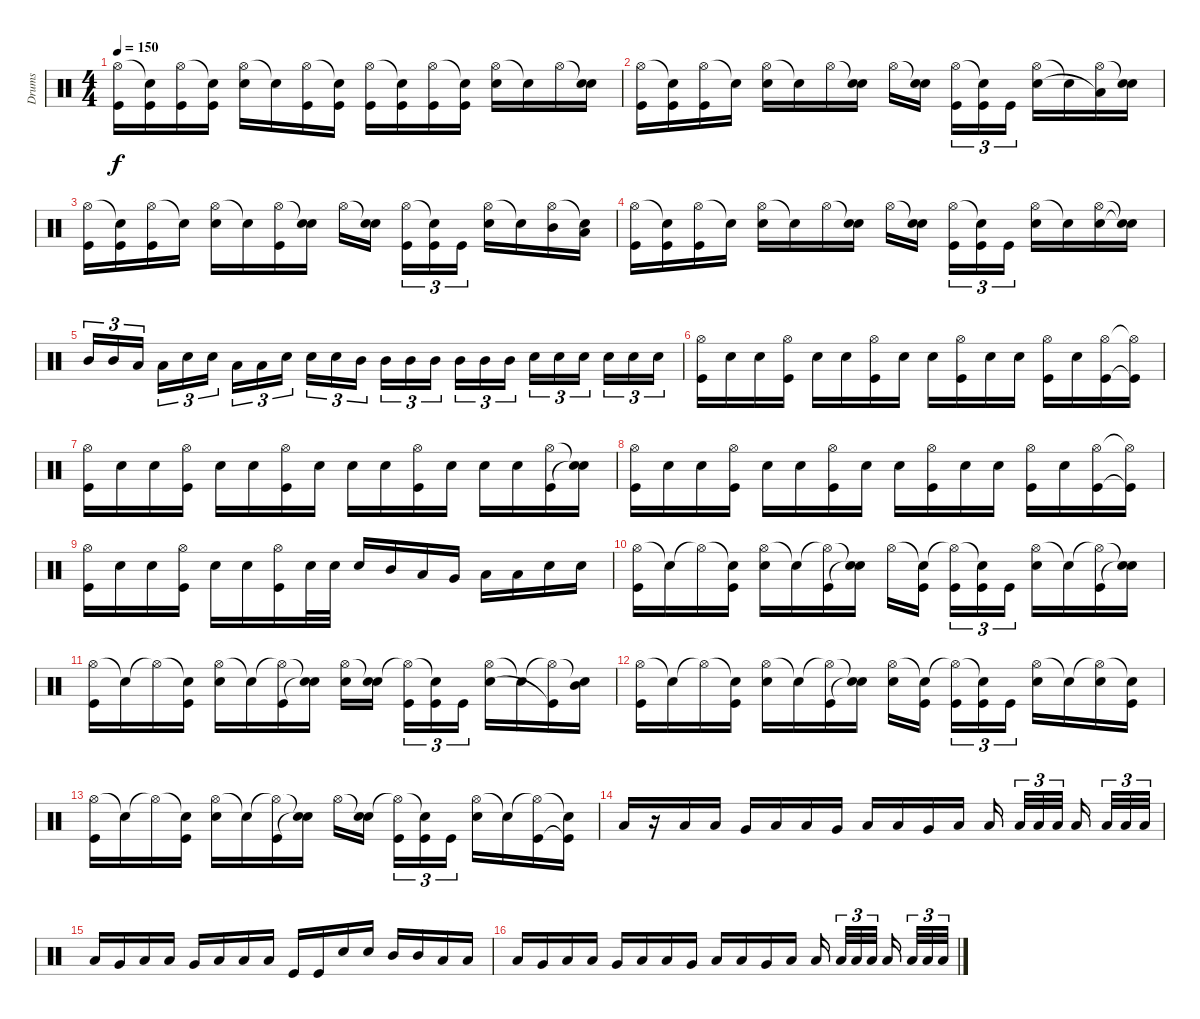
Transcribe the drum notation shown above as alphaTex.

\track ("Drums" "Drums") {instrument percussion}
\staff {score}
\articulation defaults
\ts (4 4)
\tempo 150
\clef neutral
\ks c
("Hi-Hat (open)" "Kick (hit)").16{dy f} ("Snare (hit)"{t} "Kick (hit)").16 ("Hi-Hat (open)" "Kick (hit)").16 ("Snare (hit)"{t} "Kick (hit)").16 ("Hi-Hat (open)" "Electric Snare (hit)").16 "Snare (hit)"{t}.16 ("Hi-Hat (open)" "Kick (hit)").16 ("Snare (hit)"{t} "Kick (hit)").16 ("Hi-Hat (open)" "Kick (hit)").16 ("Snare (hit)"{t} "Kick (hit)").16 ("Hi-Hat (open)" "Kick (hit)").16 ("Snare (hit)"{t} "Kick (hit)").16 ("Hi-Hat (open)" "Electric Snare (hit)").16 "Snare (hit)"{t}.16 "Hi-Hat (open)".16 ("Snare (hit)"{t} "Electric Snare (hit)").16 |
("Hi-Hat (open)" "Kick (hit)").16 ("Snare (hit)"{t} "Kick (hit)").16 ("Hi-Hat (open)" "Kick (hit)").16 "Snare (hit)"{t}.16 ("Hi-Hat (open)" "Electric Snare (hit)").16 "Snare (hit)"{t}.16 "Hi-Hat (open)".16 ("Snare (hit)"{t} "Electric Snare (hit)").16 "Hi-Hat (open)".16 ("Snare (hit)"{t} "Electric Snare (hit)").16 ("Hi-Hat (open)" "Kick (hit)").16{tu (3 2)} ("Snare (hit)"{t} "Kick (hit)").16{tu (3 2)} "Kick (hit)".16{tu (3 2)} ("Hi-Hat (open)" "Electric Snare (hit)").16 "Snare (hit)"{t}.16 ("Hi-Hat (open)" "Low Tom (hit)"{t}).16 ("Snare (hit)"{t} "Electric Snare (hit)").16 |
("Hi-Hat (open)" "Kick (hit)").16 ("Snare (hit)"{t} "Kick (hit)").16 ("Hi-Hat (open)" "Kick (hit)").16 "Snare (hit)"{t}.16 ("Hi-Hat (open)" "Electric Snare (hit)").16 "Snare (hit)"{t}.16 ("Hi-Hat (open)" "Kick (hit)").16 ("Snare (hit)"{t} "Electric Snare (hit)").16 "Hi-Hat (open)".16 ("Snare (hit)"{t} "Electric Snare (hit)").16 ("Hi-Hat (open)" "Kick (hit)").16{tu (3 2)} ("Snare (hit)"{t} "Kick (hit)").16{tu (3 2)} "Kick (hit)".16{tu (3 2)} ("Hi-Hat (open)" "Electric Snare (hit)").16 "Snare (hit)"{t}.16 ("Hi-Hat (open)" "Mid Tom (hit)").16 ("Snare (hit)"{t} "Low Tom (hit)").16 |
("Hi-Hat (open)" "Kick (hit)").16 ("Snare (hit)"{t} "Kick (hit)").16 ("Hi-Hat (open)" "Kick (hit)").16 "Snare (hit)"{t}.16 ("Hi-Hat (open)" "Electric Snare (hit)").16 "Snare (hit)"{t}.16 "Hi-Hat (open)".16 ("Snare (hit)"{t} "Electric Snare (hit)").16 "Hi-Hat (open)".16 ("Snare (hit)"{t} "Electric Snare (hit)").16 ("Hi-Hat (open)" "Kick (hit)").16{tu (3 2)} ("Snare (hit)"{t} "Kick (hit)").16{tu (3 2)} "Kick (hit)".16{tu (3 2)} ("Hi-Hat (open)" "Electric Snare (hit)").16 "Snare (hit)"{t}.16 ("Hi-Hat (open)" "Electric Snare (hit)").16 ("Snare (hit)"{t} "Electric Snare (hit)"{t}).16 |
"Mid Tom (hit)".16{tu (3 2)} "Mid Tom (hit)".16{tu (3 2)} "Low Tom (hit)".16{tu (3 2)} "Low Tom (hit)".16{tu (3 2)} "Electric Snare (hit)".16{tu (3 2)} "Electric Snare (hit)".16{tu (3 2)} "Low Tom (hit)".16{tu (3 2)} "Low Tom (hit)".16{tu (3 2)} "Electric Snare (hit)".16{tu (3 2)} "Electric Snare (hit)".16{tu (3 2)} "Electric Snare (hit)".16{tu (3 2)} "Mid Tom (hit)".16{tu (3 2)} "Mid Tom (hit)".16{tu (3 2)} "Mid Tom (hit)".16{tu (3 2)} "Mid Tom (hit)".16{tu (3 2)} "Mid Tom (hit)".16{tu (3 2)} "Mid Tom (hit)".16{tu (3 2)} "Mid Tom (hit)".16{tu (3 2)} "Electric Snare (hit)".16{tu (3 2)} "Electric Snare (hit)".16{tu (3 2)} "Electric Snare (hit)".16{tu (3 2)} "Electric Snare (hit)".16{tu (3 2)} "Electric Snare (hit)".16{tu (3 2)} "Electric Snare (hit)".16{tu (3 2)} |
("Hi-Hat (open)" "Kick (hit)").16 "Electric Snare (hit)".16 "Electric Snare (hit)".16 ("Hi-Hat (open)" "Kick (hit)").16 "Electric Snare (hit)".16 "Electric Snare (hit)".16 ("Hi-Hat (open)" "Kick (hit)").16 "Electric Snare (hit)".16 "Electric Snare (hit)".16 ("Hi-Hat (open)" "Kick (hit)").16 "Electric Snare (hit)".16 "Electric Snare (hit)".16 ("Hi-Hat (open)" "Kick (hit)").16 "Electric Snare (hit)".16 ("Hi-Hat (open)" "Kick (hit)").16 ("Hi-Hat (open)"{t} "Kick (hit)"{t}).16 |
("Hi-Hat (open)" "Kick (hit)").16 "Electric Snare (hit)".16 "Electric Snare (hit)".16 ("Hi-Hat (open)" "Kick (hit)").16 "Electric Snare (hit)".16 "Electric Snare (hit)".16 ("Hi-Hat (open)" "Kick (hit)").16 "Electric Snare (hit)".16 "Electric Snare (hit)".16 "Electric Snare (hit)".16 ("Hi-Hat (open)" "Kick (hit)").16 "Electric Snare (hit)".16 "Electric Snare (hit)".16 "Electric Snare (hit)".16 ("Hi-Hat (open)" "Kick (hit)").16 ("Snare (hit)"{t} "Snare (hit)"{t}).16 |
("Hi-Hat (open)" "Kick (hit)").16 "Electric Snare (hit)".16 "Electric Snare (hit)".16 ("Hi-Hat (open)" "Kick (hit)").16 "Electric Snare (hit)".16 "Electric Snare (hit)".16 ("Hi-Hat (open)" "Kick (hit)").16 "Electric Snare (hit)".16 "Electric Snare (hit)".16 ("Hi-Hat (open)" "Kick (hit)").16 "Electric Snare (hit)".16 "Electric Snare (hit)".16 ("Hi-Hat (open)" "Kick (hit)").16 "Electric Snare (hit)".16 ("Hi-Hat (open)" "Kick (hit)").16 ("Hi-Hat (open)"{t} "Kick (hit)"{t}).16 |
("Hi-Hat (open)" "Kick (hit)").16 "Electric Snare (hit)".16 "Electric Snare (hit)".16 ("Hi-Hat (open)" "Kick (hit)").16 "Electric Snare (hit)".16 "Electric Snare (hit)".16 ("Hi-Hat (open)" "Kick (hit)").16 "Electric Snare (hit)".32 "Electric Snare (hit)".32 "Electric Snare (hit)".16 "Mid Tom (hit)".16 "Low Tom (hit)".16 "Very Low Tom (hit)".16 "Low Floor Tom (hit)".16 "Low Floor Tom (hit)".16 "Electric Snare (hit)".16 "Electric Snare (hit)".16 |
("Hi-Hat (open)" "Kick (hit)").16 "Snare (hit)"{t}.16 "Hi-Hat (open)"{t}.16 ("Snare (hit)"{t} "Kick (hit)").16 ("Hi-Hat (open)" "Electric Snare (hit)").16 "Snare (hit)"{t}.16 ("Hi-Hat (open)"{t} "Kick (hit)").16 ("Snare (hit)"{t} "Electric Snare (hit)"{t}).16 "Hi-Hat (open)".16 ("Snare (hit)"{t} "Kick (hit)").16 ("Hi-Hat (open)"{t} "Kick (hit)").16{tu (3 2)} ("Snare (hit)"{t} "Kick (hit)").16{tu (3 2)} "Kick (hit)".16{tu (3 2)} ("Hi-Hat (open)" "Electric Snare (hit)").16 "Snare (hit)"{t}.16 ("Hi-Hat (open)"{t} "Kick (hit)").16 ("Snare (hit)"{t} "Electric Snare (hit)"{t}).16 |
("Hi-Hat (open)" "Kick (hit)").16 "Snare (hit)"{t}.16 "Hi-Hat (open)"{t}.16 ("Snare (hit)"{t} "Kick (hit)").16 ("Hi-Hat (open)" "Electric Snare (hit)").16 "Snare (hit)"{t}.16 ("Hi-Hat (open)"{t} "Kick (hit)").16 ("Snare (hit)"{t} "Electric Snare (hit)"{t}).16 ("Hi-Hat (open)" "Electric Snare (hit)").16 ("Snare (hit)"{t} "Electric Snare (hit)").16 ("Hi-Hat (open)"{t} "Kick (hit)").16{tu (3 2)} ("Snare (hit)"{t} "Kick (hit)").16{tu (3 2)} "Kick (hit)".16{tu (3 2)} ("Hi-Hat (open)" "Electric Snare (hit)").16 "Snare (hit)"{t}.16 ("Hi-Hat (open)"{t} "Kick (hit)"{t}).16 ("Snare (hit)"{t} "Mid Tom (hit)").16 |
("Hi-Hat (open)" "Kick (hit)").16 "Snare (hit)"{t}.16 "Hi-Hat (open)"{t}.16 ("Snare (hit)"{t} "Kick (hit)").16 ("Hi-Hat (open)" "Electric Snare (hit)").16 "Snare (hit)"{t}.16 ("Hi-Hat (open)"{t} "Kick (hit)").16 ("Snare (hit)"{t} "Electric Snare (hit)"{t}).16 ("Hi-Hat (open)" "Electric Snare (hit)").16 ("Snare (hit)"{t} "Kick (hit)").16 ("Hi-Hat (open)"{t} "Kick (hit)").16{tu (3 2)} ("Snare (hit)"{t} "Kick (hit)").16{tu (3 2)} "Kick (hit)".16{tu (3 2)} ("Hi-Hat (open)" "Electric Snare (hit)").16 "Snare (hit)"{t}.16 ("Hi-Hat (open)"{t} "Electric Snare (hit)").16 ("Snare (hit)"{t} "Kick (hit)").16 |
("Hi-Hat (open)" "Kick (hit)").16 "Snare (hit)"{t}.16 "Hi-Hat (open)"{t}.16 ("Snare (hit)"{t} "Kick (hit)").16 ("Hi-Hat (open)" "Electric Snare (hit)").16 "Snare (hit)"{t}.16 ("Hi-Hat (open)"{t} "Kick (hit)").16 ("Snare (hit)"{t} "Electric Snare (hit)"{t}).16 "Hi-Hat (open)".16 ("Snare (hit)"{t} "Electric Snare (hit)").16 ("Hi-Hat (open)"{t} "Kick (hit)").16{tu (3 2)} ("Snare (hit)"{t} "Kick (hit)").16{tu (3 2)} "Kick (hit)".16{tu (3 2)} ("Hi-Hat (open)" "Electric Snare (hit)").16 "Snare (hit)"{t}.16 ("Hi-Hat (open)"{t} "Kick (hit)").16 ("Snare (hit)"{t} "Kick (hit)"{t}).16 |
"Low Tom (hit)".16 r.16 "Low Floor Tom (hit)".16 "Low Tom (hit)".16 "Very Low Tom (hit)".16 "Low Floor Tom (hit)".16 "Low Tom (hit)".16 "Very Low Tom (hit)".16 "Low Floor Tom (hit)".16 "Low Tom (hit)".16 "Very Low Tom (hit)".16 "Low Floor Tom (hit)".16 "Low Floor Tom (hit)".16 "Low Floor Tom (hit)".32{tu (3 2)} "Low Floor Tom (hit)".32{tu (3 2)} "Low Tom (hit)".32{tu (3 2)} "Low Floor Tom (hit)".16 "Low Floor Tom (hit)".32{tu (3 2)} "Low Tom (hit)".32{tu (3 2)} "Low Floor Tom (hit)".32{tu (3 2)} |
"Low Tom (hit)".16 "Very Low Tom (hit)".16 "Low Floor Tom (hit)".16 "Low Tom (hit)".16 "Very Low Tom (hit)".16 "Low Floor Tom (hit)".16 "Low Tom (hit)".16 "Low Tom (hit)".16 "Kick (hit)".16 "Kick (hit)".16 "Electric Snare (hit)".16 "Electric Snare (hit)".16 "Mid Tom (hit)".16 "Mid Tom (hit)".16 "Low Tom (hit)".16 "Low Tom (hit)".16 |
"Low Tom (hit)".16 "Very Low Tom (hit)".16 "Low Floor Tom (hit)".16 "Low Tom (hit)".16 "Very Low Tom (hit)".16 "Low Floor Tom (hit)".16 "Low Tom (hit)".16 "Very Low Tom (hit)".16 "Low Floor Tom (hit)".16 "Low Tom (hit)".16 "Very Low Tom (hit)".16 "Low Floor Tom (hit)".16 "Low Floor Tom (hit)".16 "Low Floor Tom (hit)".32{tu (3 2)} "Low Floor Tom (hit)".32{tu (3 2)} "Low Tom (hit)".32{tu (3 2)} "Low Floor Tom (hit)".16 "Low Floor Tom (hit)".32{tu (3 2)} "Low Tom (hit)".32{tu (3 2)} "Low Floor Tom (hit)".32{tu (3 2)}
